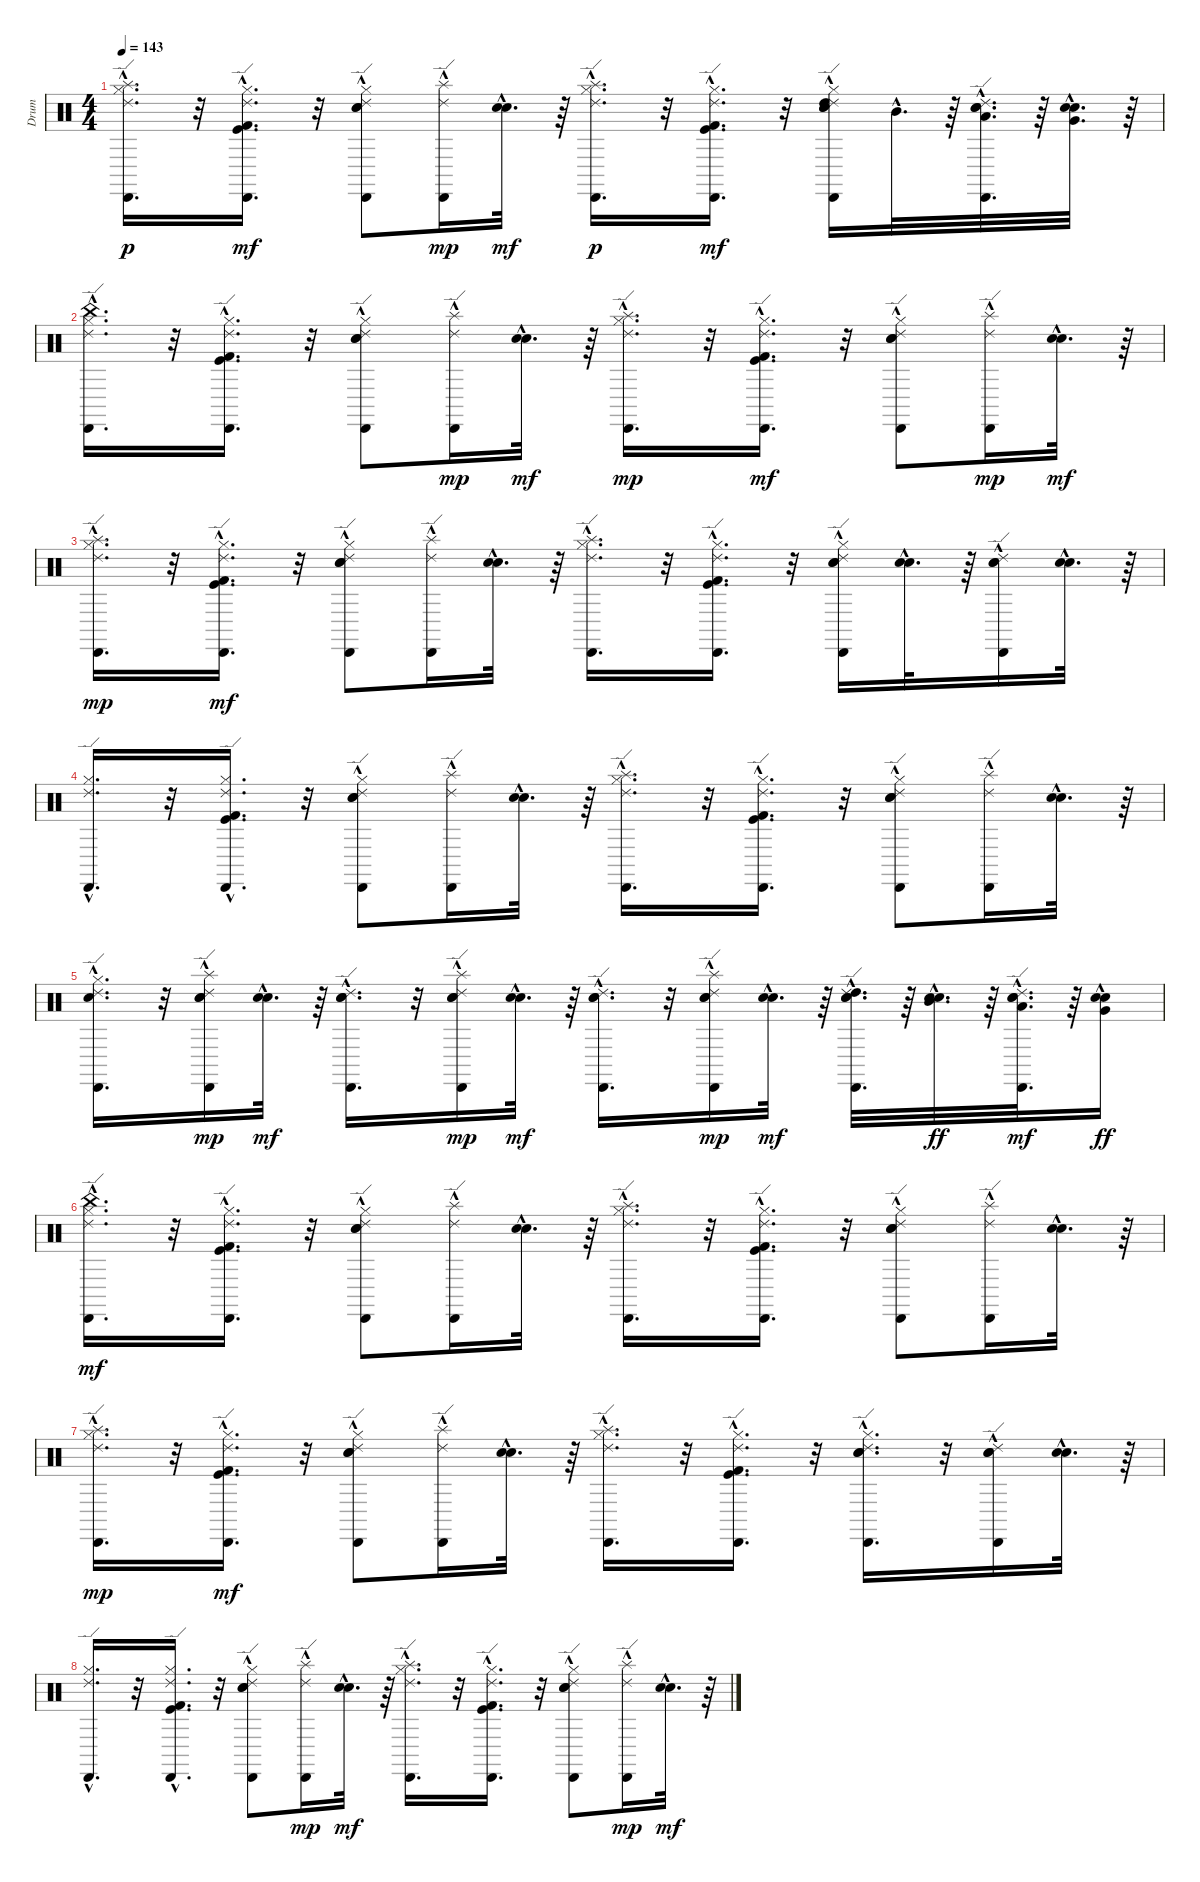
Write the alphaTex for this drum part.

\track ("Drum" "Drum") {instrument percussion}
\staff {score}
\articulation defaults
\ts (4 4)
\tempo 143
\clef neutral
\ks c
("Ride (edge) 2"{hac} "Hi-Hat (closed)"{hac} "Cabasa (hit)"{hac} "Splash (hit)"{hac}).16{d dy p} r.32 ("Ride (edge) 2"{hac} "Kick (hit) 2"{hac} "Kick (hit)"{hac} "Cabasa (hit)"{hac} "Hi-Hat (closed)"{hac}).16{d dy mf} r.32 ("Ride (edge) 2"{hac} "Cabasa (hit)"{hac} "Electric Snare (hit)" "Hi-Hat (closed)" "Snare (hit) 2").8 ("Ride (edge) 2"{hac} "Cabasa (hit)"{hac} "Splash (hit)"{hac}).16{dy mp} ("Snare (hit) 2"{hac} "Electric Snare (hit)"{hac}).32{d dy mf} r.64 ("Ride (edge) 2"{hac} "Cabasa (hit)"{hac} "Hi-Hat (closed)"{hac} "Splash (hit)"{hac}).16{d dy p} r.32 ("Ride (edge) 2"{hac} "Kick (hit) 2"{hac} "Kick (hit)"{hac} "Cabasa (hit)"{hac} "Hi-Hat (closed)"{hac}).16{d dy mf} r.32 ("Cabasa (hit)"{hac} "Ride (edge) 2"{hac} "High Tom (hit)"{hac} "Electric Snare (hit)"{hac} "Snare (hit) 2"{hac} "Hi-Hat (closed)"{hac}).16 "Mid Tom (hit)"{hac}.32{d} r.64 ("Cabasa (hit)"{hac} "Ride (edge) 2"{hac} "Low Tom (hit)"{hac} "Electric Snare (hit)"{hac} "Snare (hit) 2"{hac}).32{d} r.64 ("Very Low Tom (hit)"{hac} "Snare (hit) 2"{hac} "Electric Snare (hit)"{hac}).32{d} r.64 |
("Hi-Hat (closed)"{hac} "Cabasa (hit)"{hac} "Ride (edge) 2"{hac} "China (hit)"{hac}).16{d} r.32 ("Hi-Hat (closed)"{hac} "Kick (hit)"{hac} "Cabasa (hit)"{hac} "Kick (hit) 2"{hac} "Ride (edge) 2"{hac}).16{d} r.32 ("Hi-Hat (closed)" "Snare (hit) 2" "Cabasa (hit)"{hac} "Electric Snare (hit)" "Ride (edge) 2"{hac}).8 ("Cabasa (hit)"{hac} "Ride (edge) 2"{hac} "Splash (hit)"{hac}).16{dy mp} ("Snare (hit) 2"{hac} "Electric Snare (hit)"{hac}).32{d dy mf} r.64 ("Hi-Hat (closed)"{hac} "Cabasa (hit)"{hac} "Ride (edge) 2"{hac} "Splash (hit)"{hac}).16{d dy mp} r.32 ("Hi-Hat (closed)"{hac} "Kick (hit)"{hac} "Cabasa (hit)"{hac} "Kick (hit) 2"{hac} "Ride (edge) 2"{hac}).16{d dy mf} r.32 ("Hi-Hat (closed)" "Snare (hit) 2" "Cabasa (hit)"{hac} "Electric Snare (hit)" "Ride (edge) 2"{hac}).8 ("Cabasa (hit)"{hac} "Ride (edge) 2"{hac} "Splash (hit)"{hac}).16{dy mp} ("Snare (hit) 2"{hac} "Electric Snare (hit)"{hac}).32{d dy mf} r.64 |
("Hi-Hat (closed)"{hac} "Ride (edge) 2"{hac} "Cabasa (hit)"{hac} "Splash (hit)"{hac}).16{d dy mp} r.32 ("Kick (hit)"{hac} "Hi-Hat (closed)"{hac} "Kick (hit) 2"{hac} "Ride (edge) 2"{hac} "Cabasa (hit)"{hac}).16{d dy mf} r.32 ("Snare (hit) 2" "Hi-Hat (closed)" "Electric Snare (hit)" "Ride (edge) 2"{hac} "Cabasa (hit)"{hac}).8 ("Splash (hit)"{hac} "Ride (edge) 2"{hac} "Cabasa (hit)"{hac}).16 ("Snare (hit) 2"{hac} "Electric Snare (hit)"{hac}).32{d} r.64 ("Hi-Hat (closed)"{hac} "Splash (hit)"{hac} "Ride (edge) 2"{hac} "Cabasa (hit)"{hac}).16{d} r.32 ("Kick (hit)"{hac} "Hi-Hat (closed)"{hac} "Kick (hit) 2"{hac} "Ride (edge) 2"{hac} "Cabasa (hit)"{hac}).16{d} r.32 ("Snare (hit) 2"{hac} "Electric Snare (hit)"{hac} "Hi-Hat (closed)"{hac} "Ride (edge) 2"{hac} "Cabasa (hit)"{hac}).16 ("Snare (hit) 2"{hac} "Electric Snare (hit)"{hac}).32{d} r.64 ("Snare (hit) 2"{hac} "Electric Snare (hit)"{hac} "Ride (edge) 2"{hac} "Cabasa (hit)"{hac}).16 ("Snare (hit) 2"{hac} "Electric Snare (hit)"{hac}).32{d} r.64 |
("Hi-Hat (closed)"{hac} "Ride (edge) 2"{hac} "Cabasa (hit)"{hac}).16{d} r.32 ("Hi-Hat (closed)"{hac} "Kick (hit)"{hac} "Kick (hit) 2"{hac} "Ride (edge) 2"{hac} "Cabasa (hit)"{hac}).16{d} r.32 ("Hi-Hat (closed)" "Snare (hit) 2" "Electric Snare (hit)" "Ride (edge) 2"{hac} "Cabasa (hit)"{hac}).8 ("Splash (hit)"{hac} "Ride (edge) 2"{hac} "Cabasa (hit)"{hac}).16 ("Snare (hit) 2"{hac} "Electric Snare (hit)"{hac}).32{d} r.64 ("Hi-Hat (closed)"{hac} "Splash (hit)"{hac} "Ride (edge) 2"{hac} "Cabasa (hit)"{hac}).16{d} r.32 ("Hi-Hat (closed)"{hac} "Kick (hit)"{hac} "Kick (hit) 2"{hac} "Ride (edge) 2"{hac} "Cabasa (hit)"{hac}).16{d} r.32 ("Electric Snare (hit)" "Snare (hit) 2" "Hi-Hat (closed)" "Ride (edge) 2"{hac} "Cabasa (hit)"{hac}).8 ("Splash (hit)"{hac} "Ride (edge) 2"{hac} "Cabasa (hit)"{hac}).16 ("Electric Snare (hit)"{hac} "Snare (hit) 2"{hac}).32{d} r.64 |
("Snare (hit) 2"{hac} "Hi-Hat (closed)"{hac} "Cabasa (hit)"{hac} "Ride (edge) 2"{hac}).16{d} r.32 ("Electric Snare (hit)"{hac} "Snare (hit) 2"{hac} "Cabasa (hit)"{hac} "Ride (edge) 2"{hac} "Splash (hit)"{hac}).16{dy mp} ("Electric Snare (hit)"{hac} "Snare (hit) 2"{hac}).32{d dy mf} r.64 ("Electric Snare (hit)"{hac} "Snare (hit) 2"{hac} "Cabasa (hit)"{hac} "Ride (edge) 2"{hac}).16{d} r.32 ("Electric Snare (hit)"{hac} "Snare (hit) 2"{hac} "Cabasa (hit)"{hac} "Ride (edge) 2"{hac} "Splash (hit)"{hac}).16{dy mp} ("Electric Snare (hit)"{hac} "Snare (hit) 2"{hac}).32{d dy mf} r.64 ("Electric Snare (hit)"{hac} "Snare (hit) 2"{hac} "Cabasa (hit)"{hac} "Ride (edge) 2"{hac}).16{d} r.32 ("Electric Snare (hit)"{hac} "Snare (hit) 2"{hac} "Cabasa (hit)"{hac} "Ride (edge) 2"{hac} "Splash (hit)"{hac}).16{dy mp} ("Electric Snare (hit)"{hac} "Snare (hit) 2"{hac}).32{d dy mf} r.64 ("Snare (hit) 2"{hac} "Electric Snare (hit)"{hac} "High Tom (hit)"{hac} "Cabasa (hit)"{hac} "Ride (edge) 2"{hac}).32{d} r.64 ("Snare (hit) 2"{hac} "Electric Snare (hit)"{hac} "Mid Tom (hit)"{hac}).32{d dy ff} r.64 ("Snare (hit) 2"{hac} "Electric Snare (hit)"{hac} "Low Tom (hit)"{hac} "Cabasa (hit)"{hac} "Ride (edge) 2"{hac}).32{d dy mf} r.64 ("Snare (hit) 2"{hac} "Electric Snare (hit)"{hac} "Very Low Tom (hit)").16{dy ff} |
("China (hit)"{hac} "Ride (edge) 2"{hac} "Cabasa (hit)"{hac} "Hi-Hat (closed)"{hac}).16{d dy mf} r.32 ("Ride (edge) 2"{hac} "Kick (hit) 2"{hac} "Cabasa (hit)"{hac} "Kick (hit)"{hac} "Hi-Hat (closed)"{hac}).16{d} r.32 ("Ride (edge) 2"{hac} "Electric Snare (hit)" "Cabasa (hit)"{hac} "Snare (hit) 2" "Hi-Hat (closed)").8 ("Splash (hit)"{hac} "Ride (edge) 2"{hac} "Cabasa (hit)"{hac}).16 ("Electric Snare (hit)"{hac} "Snare (hit) 2"{hac}).32{d} r.64 ("Splash (hit)"{hac} "Ride (edge) 2"{hac} "Cabasa (hit)"{hac} "Hi-Hat (closed)"{hac}).16{d} r.32 ("Ride (edge) 2"{hac} "Kick (hit) 2"{hac} "Cabasa (hit)"{hac} "Kick (hit)"{hac} "Hi-Hat (closed)"{hac}).16{d} r.32 ("Ride (edge) 2"{hac} "Electric Snare (hit)" "Cabasa (hit)"{hac} "Snare (hit) 2" "Hi-Hat (closed)").8 ("Splash (hit)"{hac} "Ride (edge) 2"{hac} "Cabasa (hit)"{hac}).16 ("Electric Snare (hit)"{hac} "Snare (hit) 2"{hac}).32{d} r.64 |
("Hi-Hat (closed)"{hac} "Ride (edge) 2"{hac} "Cabasa (hit)"{hac} "Splash (hit)"{hac}).16{d dy mp} r.32 ("Kick (hit)"{hac} "Hi-Hat (closed)"{hac} "Kick (hit) 2"{hac} "Ride (edge) 2"{hac} "Cabasa (hit)"{hac}).16{d dy mf} r.32 ("Snare (hit) 2" "Hi-Hat (closed)" "Electric Snare (hit)" "Ride (edge) 2"{hac} "Cabasa (hit)"{hac}).8 ("Splash (hit)"{hac} "Ride (edge) 2"{hac} "Cabasa (hit)"{hac}).16 ("Snare (hit) 2"{hac} "Electric Snare (hit)"{hac}).32{d} r.64 ("Hi-Hat (closed)"{hac} "Splash (hit)"{hac} "Ride (edge) 2"{hac} "Cabasa (hit)"{hac}).16{d} r.32 ("Kick (hit)"{hac} "Hi-Hat (closed)"{hac} "Kick (hit) 2"{hac} "Ride (edge) 2"{hac} "Cabasa (hit)"{hac}).16{d} r.32 ("Snare (hit) 2"{hac} "Hi-Hat (closed)"{hac} "Electric Snare (hit)"{hac} "Ride (edge) 2"{hac} "Cabasa (hit)"{hac}).16{d} r.32 ("Snare (hit) 2"{hac} "Electric Snare (hit)"{hac} "Ride (edge) 2"{hac} "Cabasa (hit)"{hac}).16 ("Snare (hit) 2"{hac} "Electric Snare (hit)"{hac}).32{d} r.64 |
("Cabasa (hit)"{hac} "Ride (edge) 2"{hac} "Hi-Hat (closed)"{hac}).16{d} r.32 ("Cabasa (hit)"{hac} "Ride (edge) 2"{hac} "Kick (hit) 2"{hac} "Kick (hit)"{hac} "Hi-Hat (closed)"{hac}).16{d} r.32 ("Cabasa (hit)"{hac} "Ride (edge) 2"{hac} "Electric Snare (hit)" "Snare (hit) 2" "Hi-Hat (closed)").8 ("Cabasa (hit)"{hac} "Ride (edge) 2"{hac} "Splash (hit)"{hac}).16{dy mp} ("Electric Snare (hit)"{hac} "Snare (hit) 2"{hac}).32{d dy mf} r.64 ("Cabasa (hit)"{hac} "Ride (edge) 2"{hac} "Splash (hit)"{hac} "Hi-Hat (closed)"{hac}).16{d} r.32 ("Cabasa (hit)"{hac} "Ride (edge) 2"{hac} "Kick (hit) 2"{hac} "Kick (hit)"{hac} "Hi-Hat (closed)"{hac}).16{d} r.32 ("Cabasa (hit)"{hac} "Ride (edge) 2"{hac} "Hi-Hat (closed)" "Snare (hit) 2" "Electric Snare (hit)").8 ("Cabasa (hit)"{hac} "Ride (edge) 2"{hac} "Splash (hit)"{hac}).16{dy mp} ("Snare (hit) 2"{hac} "Electric Snare (hit)"{hac}).32{d dy mf} r.64
